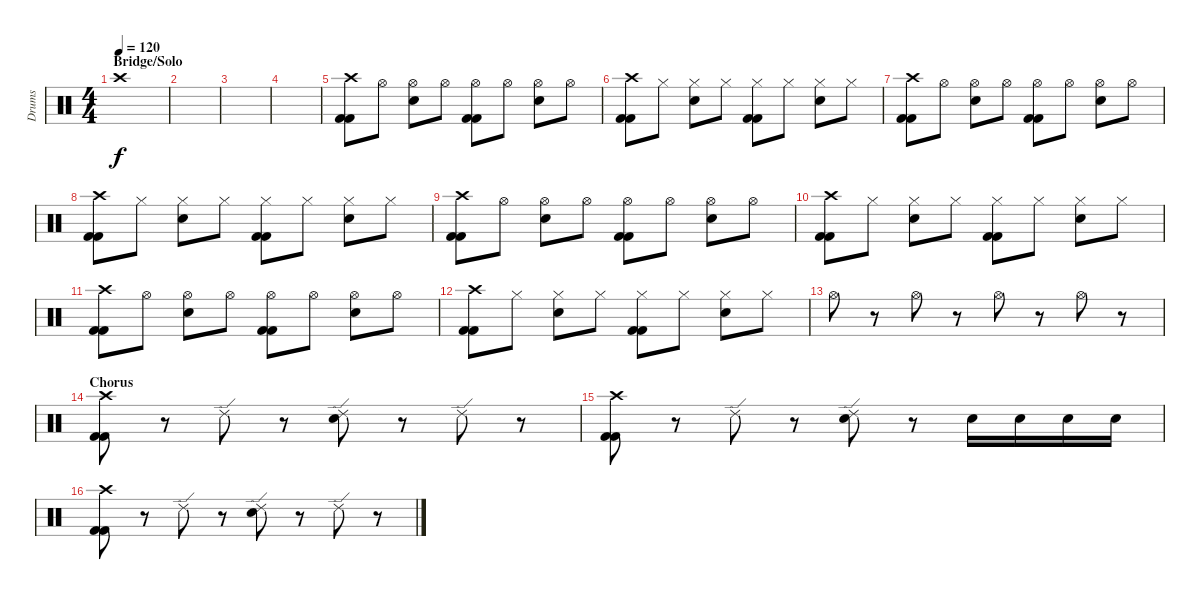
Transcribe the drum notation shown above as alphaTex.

\track ("Drums" "Drums") {instrument percussion}
\staff {score}
\articulation defaults
\ts (4 4)
\section ("" "Bridge/Solo")
\tempo 120
\clef neutral
\ks c "Crash high (hit)".1{dy f}
|
|
|
|
("Crash high (hit)" "Kick (hit) 2" "Kick (hit) 2").8 "Hi-Hat (open)".8 ("Hi-Hat (open)" "Electric Snare (hit)").8 "Hi-Hat (open)".8 ("Hi-Hat (open)" "Kick (hit) 2" "Kick (hit) 2").8 "Hi-Hat (open)".8 ("Hi-Hat (open)" "Electric Snare (hit)").8 "Hi-Hat (open)".8 |
("Crash high (hit)" "Kick (hit) 2" "Kick (hit) 2").8 "Hi-Hat (closed)".8 ("Hi-Hat (closed)" "Electric Snare (hit)").8 "Hi-Hat (closed)".8 ("Hi-Hat (closed)" "Kick (hit) 2" "Kick (hit) 2").8 "Hi-Hat (closed)".8 ("Hi-Hat (closed)" "Electric Snare (hit)").8 "Hi-Hat (closed)".8 |
("Crash high (hit)" "Kick (hit) 2" "Kick (hit) 2").8 "Hi-Hat (open)".8 ("Hi-Hat (open)" "Electric Snare (hit)").8 "Hi-Hat (open)".8 ("Hi-Hat (open)" "Kick (hit) 2" "Kick (hit) 2").8 "Hi-Hat (open)".8 ("Hi-Hat (open)" "Electric Snare (hit)").8 "Hi-Hat (open)".8 |
("Crash high (hit)" "Kick (hit) 2" "Kick (hit) 2").8 "Hi-Hat (closed)".8 ("Hi-Hat (closed)" "Electric Snare (hit)").8 "Hi-Hat (closed)".8 ("Hi-Hat (closed)" "Kick (hit) 2" "Kick (hit) 2").8 "Hi-Hat (closed)".8 ("Hi-Hat (closed)" "Electric Snare (hit)").8 "Hi-Hat (closed)".8 |
("Crash high (hit)" "Kick (hit) 2" "Kick (hit) 2").8 "Hi-Hat (open)".8 ("Hi-Hat (open)" "Electric Snare (hit)").8 "Hi-Hat (open)".8 ("Hi-Hat (open)" "Kick (hit) 2" "Kick (hit) 2").8 "Hi-Hat (open)".8 ("Hi-Hat (open)" "Electric Snare (hit)").8 "Hi-Hat (open)".8 |
("Crash high (hit)" "Kick (hit) 2" "Kick (hit) 2").8 "Hi-Hat (closed)".8 ("Hi-Hat (closed)" "Electric Snare (hit)").8 "Hi-Hat (closed)".8 ("Hi-Hat (closed)" "Kick (hit) 2" "Kick (hit) 2").8 "Hi-Hat (closed)".8 ("Hi-Hat (closed)" "Electric Snare (hit)").8 "Hi-Hat (closed)".8 |
("Crash high (hit)" "Kick (hit) 2" "Kick (hit) 2").8 "Hi-Hat (open)".8 ("Hi-Hat (open)" "Electric Snare (hit)").8 "Hi-Hat (open)".8 ("Hi-Hat (open)" "Kick (hit) 2" "Kick (hit) 2").8 "Hi-Hat (open)".8 ("Hi-Hat (open)" "Electric Snare (hit)").8 "Hi-Hat (open)".8 |
("Crash high (hit)" "Kick (hit) 2" "Kick (hit) 2").8 "Hi-Hat (closed)".8 ("Hi-Hat (closed)" "Electric Snare (hit)").8 "Hi-Hat (closed)".8 ("Hi-Hat (closed)" "Kick (hit) 2" "Kick (hit) 2").8 "Hi-Hat (closed)".8 ("Hi-Hat (closed)" "Electric Snare (hit)").8 "Hi-Hat (closed)".8 |
"Hi-Hat (open)".8 r.8 "Hi-Hat (open)".8 r.8 "Hi-Hat (open)".8 r.8 "Hi-Hat (open)".8 r.8 |
\section ("" "Chorus")
("Crash high (hit)" "Kick (hit) 2" "Kick (hit) 2").8 r.8 "Ride (edge) 2".8 r.8 ("Ride (edge) 2" "Electric Snare (hit)").8 r.8 "Ride (edge) 2".8 r.8 |
("Crash high (hit)" "Kick (hit) 2" "Kick (hit) 2").8 r.8 "Ride (edge) 2".8 r.8 ("Ride (edge) 2" "Electric Snare (hit)").8 r.8 "Electric Snare (hit)".16 "Electric Snare (hit)".16 "Electric Snare (hit)".16 "Electric Snare (hit)".16 |
("Crash high (hit)" "Kick (hit) 2" "Kick (hit) 2").8 r.8 "Ride (edge) 2".8 r.8 ("Ride (edge) 2" "Electric Snare (hit)").8 r.8 "Ride (edge) 2".8 r.8
